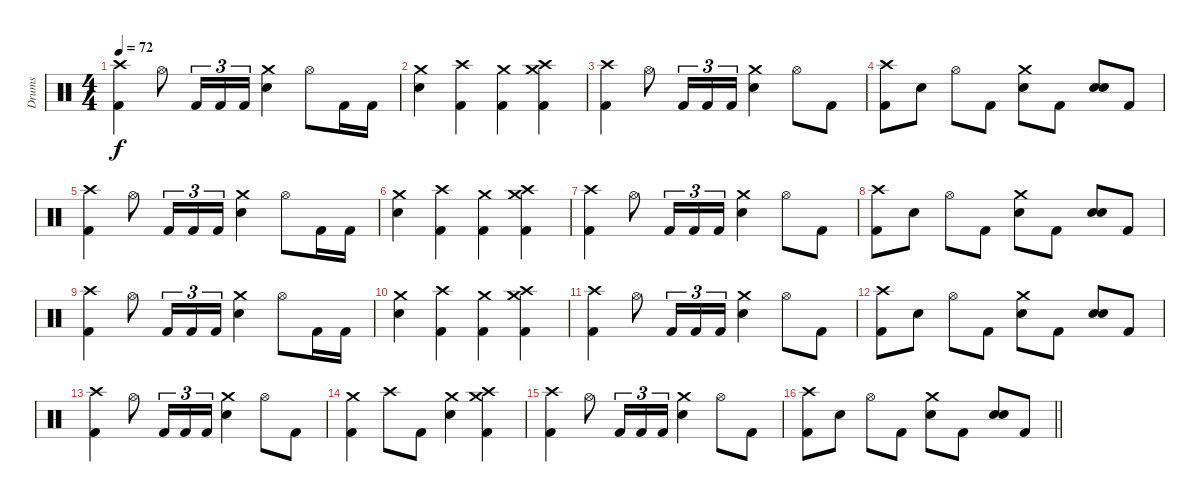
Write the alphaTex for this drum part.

\track ("Drums" "Drums") {instrument percussion}
\staff {score}
\articulation defaults
\ts (4 4)
\tempo 72
\clef neutral
\ks c
("Crash high (hit)" "Kick (hit) 2").4{dy f} "Hi-Hat (open)".8 "Kick (hit) 2".16{tu (3 2)} "Kick (hit) 2".16{tu (3 2)} "Kick (hit) 2".16{tu (3 2)} ("Crash medium (hit)" "Electric Snare (hit)").4 "Hi-Hat (open)".8 "Kick (hit) 2".16 "Kick (hit) 2".16 |
("Crash medium (hit)" "Electric Snare (hit)").4 ("Crash high (hit)" "Kick (hit) 2").4 ("Crash medium (hit)" "Kick (hit) 2").4 ("Crash high (hit)" "Crash medium (hit)" "Kick (hit) 2").4 |
("Crash high (hit)" "Kick (hit) 2").4 "Hi-Hat (open)".8 "Kick (hit) 2".16{tu (3 2)} "Kick (hit) 2".16{tu (3 2)} "Kick (hit) 2".16{tu (3 2)} ("Crash medium (hit)" "Electric Snare (hit)").4 "Hi-Hat (open)".8 "Kick (hit) 2".8 |
("Crash high (hit)" "Kick (hit) 2").8 "Electric Snare (hit)".8 "Hi-Hat (open)".8 "Kick (hit) 2".8 ("Crash medium (hit)" "Electric Snare (hit)").8 "Kick (hit) 2".8 ("Electric Snare (hit)" "Electric Snare (hit)").8{bu 60} "Kick (hit) 2".8 |
("Crash high (hit)" "Kick (hit) 2").4 "Hi-Hat (open)".8 "Kick (hit) 2".16{tu (3 2)} "Kick (hit) 2".16{tu (3 2)} "Kick (hit) 2".16{tu (3 2)} ("Crash medium (hit)" "Electric Snare (hit)").4 "Hi-Hat (open)".8 "Kick (hit) 2".16 "Kick (hit) 2".16 |
("Crash medium (hit)" "Electric Snare (hit)").4 ("Crash high (hit)" "Kick (hit) 2").4 ("Crash medium (hit)" "Kick (hit) 2").4 ("Crash high (hit)" "Crash medium (hit)" "Kick (hit) 2").4 |
("Crash high (hit)" "Kick (hit) 2").4 "Hi-Hat (open)".8 "Kick (hit) 2".16{tu (3 2)} "Kick (hit) 2".16{tu (3 2)} "Kick (hit) 2".16{tu (3 2)} ("Crash medium (hit)" "Electric Snare (hit)").4 "Hi-Hat (open)".8 "Kick (hit) 2".8 |
("Crash high (hit)" "Kick (hit) 2").8 "Electric Snare (hit)".8 "Hi-Hat (open)".8 "Kick (hit) 2".8 ("Crash medium (hit)" "Electric Snare (hit)").8 "Kick (hit) 2".8 ("Electric Snare (hit)" "Electric Snare (hit)").8{bu 60} "Kick (hit) 2".8 |
("Crash high (hit)" "Kick (hit) 2").4 "Hi-Hat (open)".8 "Kick (hit) 2".16{tu (3 2)} "Kick (hit) 2".16{tu (3 2)} "Kick (hit) 2".16{tu (3 2)} ("Crash medium (hit)" "Electric Snare (hit)").4 "Hi-Hat (open)".8 "Kick (hit) 2".16 "Kick (hit) 2".16 |
("Crash medium (hit)" "Electric Snare (hit)").4 ("Crash high (hit)" "Kick (hit) 2").4 ("Crash medium (hit)" "Kick (hit) 2").4 ("Crash high (hit)" "Crash medium (hit)" "Kick (hit) 2").4 |
("Crash high (hit)" "Kick (hit) 2").4 "Hi-Hat (open)".8 "Kick (hit) 2".16{tu (3 2)} "Kick (hit) 2".16{tu (3 2)} "Kick (hit) 2".16{tu (3 2)} ("Crash medium (hit)" "Electric Snare (hit)").4 "Hi-Hat (open)".8 "Kick (hit) 2".8 |
("Crash high (hit)" "Kick (hit) 2").8 "Electric Snare (hit)".8 "Hi-Hat (open)".8 "Kick (hit) 2".8 ("Crash medium (hit)" "Electric Snare (hit)").8 "Kick (hit) 2".8 ("Electric Snare (hit)" "Electric Snare (hit)").8{bu 60} "Kick (hit) 2".8 |
("Crash high (hit)" "Kick (hit) 2").4 "Hi-Hat (open)".8 "Kick (hit) 2".16{tu (3 2)} "Kick (hit) 2".16{tu (3 2)} "Kick (hit) 2".16{tu (3 2)} ("Crash medium (hit)" "Electric Snare (hit)").4 "Hi-Hat (open)".8 "Kick (hit) 2".8 |
("Crash medium (hit)" "Kick (hit) 2").4 "Crash high (hit)".8 "Kick (hit) 2".8 ("Crash medium (hit)" "Electric Snare (hit)").4 ("Crash high (hit)" "Crash medium (hit)" "Kick (hit) 2").4 |
("Crash high (hit)" "Kick (hit) 2").4 "Hi-Hat (open)".8 "Kick (hit) 2".16{tu (3 2)} "Kick (hit) 2".16{tu (3 2)} "Kick (hit) 2".16{tu (3 2)} ("Crash medium (hit)" "Electric Snare (hit)").4 "Hi-Hat (open)".8 "Kick (hit) 2".8 |
\barLineRight lightlight
("Crash high (hit)" "Kick (hit) 2").8 "Electric Snare (hit)".8 "Hi-Hat (open)".8 "Kick (hit) 2".8 ("Crash medium (hit)" "Electric Snare (hit)").8 "Kick (hit) 2".8 ("Electric Snare (hit)" "Electric Snare (hit)").8{bu 60} "Kick (hit) 2".8
